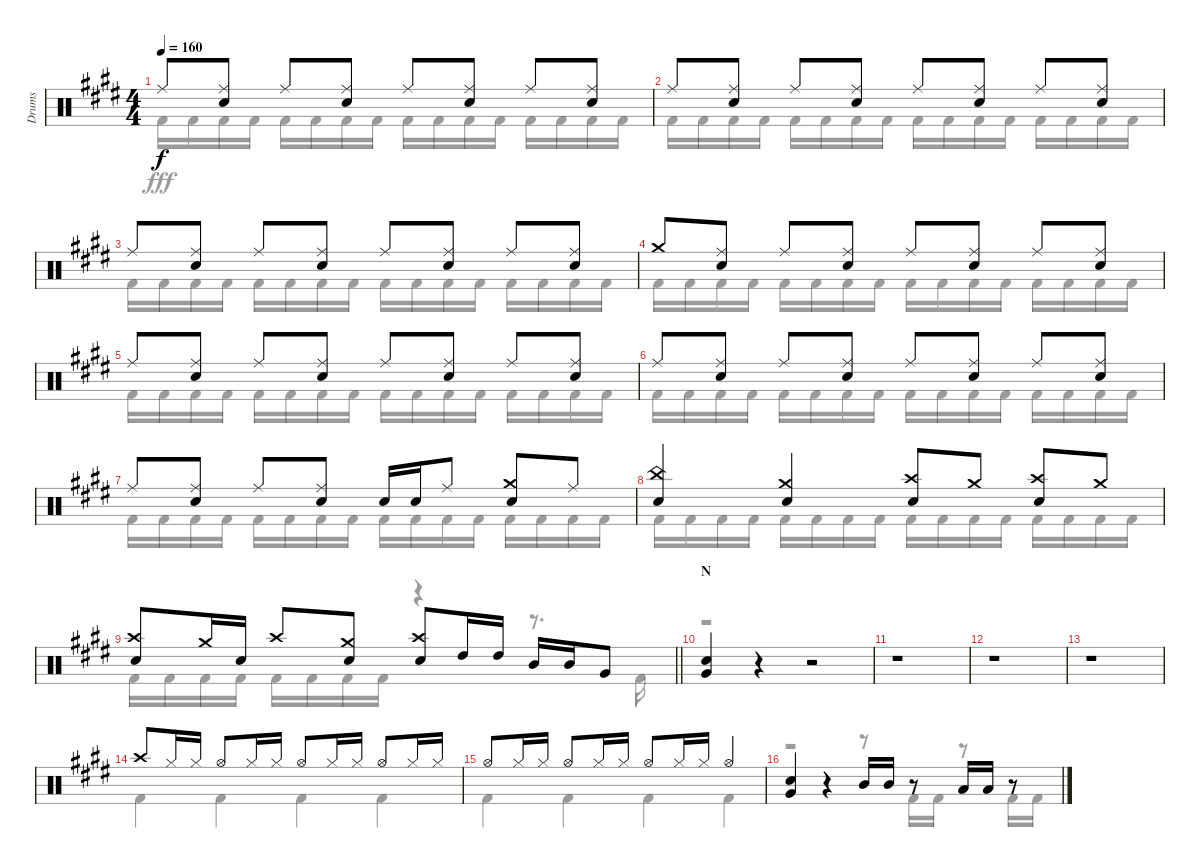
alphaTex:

\track ("Drums" "Drums") {instrument percussion}
\staff {score}
\articulation defaults
\voice
\ts (4 4)
\tempo 160
\clef neutral
\ks e "Ride (middle)".8{dy f}
("Ride (middle)" "Snare (hit) 2").8 "Ride (middle)".8 ("Ride (middle)" "Snare (hit) 2").8 "Ride (middle)".8 ("Ride (middle)" "Snare (hit) 2").8 "Ride (middle)".8 ("Ride (middle)" "Snare (hit) 2").8 |
"Ride (middle)".8 ("Ride (middle)" "Snare (hit) 2").8 "Ride (middle)".8 ("Ride (middle)" "Snare (hit) 2").8 "Ride (middle)".8 ("Ride (middle)" "Snare (hit) 2").8 "Ride (middle)".8 ("Ride (middle)" "Snare (hit) 2").8 |
"Ride (middle)".8 ("Ride (middle)" "Snare (hit) 2").8 "Ride (middle)".8 ("Ride (middle)" "Snare (hit) 2").8 "Ride (middle)".8 ("Ride (middle)" "Snare (hit) 2").8 "Ride (middle)".8 ("Ride (middle)" "Snare (hit) 2").8 |
"Crash medium (hit)".8 ("Ride (middle)" "Snare (hit) 2").8 "Ride (middle)".8 ("Ride (middle)" "Snare (hit) 2").8 "Ride (middle)".8 ("Ride (middle)" "Snare (hit) 2").8 "Ride (middle)".8 ("Ride (middle)" "Snare (hit) 2").8 |
"Ride (middle)".8 ("Ride (middle)" "Snare (hit) 2").8 "Ride (middle)".8 ("Ride (middle)" "Snare (hit) 2").8 "Ride (middle)".8 ("Ride (middle)" "Snare (hit) 2").8 "Ride (middle)".8 ("Ride (middle)" "Snare (hit) 2").8 |
"Ride (middle)".8 ("Ride (middle)" "Snare (hit) 2").8 "Ride (middle)".8 ("Ride (middle)" "Snare (hit) 2").8 "Ride (middle)".8 ("Ride (middle)" "Snare (hit) 2").8 "Ride (middle)".8 ("Ride (middle)" "Snare (hit) 2").8 |
"Ride (middle)".8 ("Ride (middle)" "Snare (hit) 2").8 "Ride (middle)".8 ("Ride (middle)" "Snare (hit) 2").8 "Snare (hit) 2".16 "Snare (hit) 2".16 "Ride (middle)".8 ("Crash medium (hit)" "Snare (hit) 2").8 "Ride (middle)".8 |
("China (hit)" "Snare (hit) 2").4 ("Crash medium (hit)" "Snare (hit) 2").4 ("Crash high (hit)" "Snare (hit) 2").8 "Crash medium (hit)".8 ("Crash high (hit)" "Snare (hit) 2").8 "Crash medium (hit)".8 |
\barLineRight lightlight
("Crash high (hit)" "Snare (hit) 2").8 "Crash medium (hit)".16 "Snare (hit) 2".16 "Crash high (hit)".8 ("Crash medium (hit)" "Snare (hit) 2").8 ("Crash high (hit)" "Snare (hit) 2").8 "High Tom (hit)".16 "High Tom (hit)".16 "Mid Tom (hit)".16 "Mid Tom (hit)".16 "Very Low Tom (hit)".8 |
\section ("" "N")
("Snare (hit) 2" "Very Low Tom (hit)").4 r.4 r.2 |
r.1 |
r.1 |
r.1 |
"Crash high (hit)".8 "Hi-Hat (closed)".16 "Hi-Hat (closed)".16 "Hi-Hat (open)".8 "Hi-Hat (closed)".16 "Hi-Hat (closed)".16 "Hi-Hat (open)".8 "Hi-Hat (closed)".16 "Hi-Hat (closed)".16 "Hi-Hat (open)".8 "Hi-Hat (closed)".16 "Hi-Hat (closed)".16 |
"Hi-Hat (open)".8 "Hi-Hat (closed)".16 "Hi-Hat (closed)".16 "Hi-Hat (open)".8 "Hi-Hat (closed)".16 "Hi-Hat (closed)".16 "Hi-Hat (open)".8 "Hi-Hat (closed)".16 "Hi-Hat (closed)".16 "Hi-Hat (open)".4 |
("Snare (hit) 2" "Very Low Tom (hit)").4 r.4 "Mid Tom (hit)".16 "Mid Tom (hit)".16 r.8 "Low Tom (hit)".16 "Low Tom (hit)".16 r.8
\voice
\clef neutral
\ottava regular
\simile none
\ks e "Kick (hit) 2".16{dy fff} "Kick (hit) 2".16 "Kick (hit) 2".16 "Kick (hit) 2".16 "Kick (hit) 2".16 "Kick (hit) 2".16 "Kick (hit) 2".16 "Kick (hit) 2".16 "Kick (hit) 2".16 "Kick (hit) 2".16 "Kick (hit) 2".16 "Kick (hit) 2".16 "Kick (hit) 2".16 "Kick (hit) 2".16 "Kick (hit) 2".16 "Kick (hit) 2".16
|
"Kick (hit) 2".16 "Kick (hit) 2".16 "Kick (hit) 2".16 "Kick (hit) 2".16 "Kick (hit) 2".16 "Kick (hit) 2".16 "Kick (hit) 2".16 "Kick (hit) 2".16 "Kick (hit) 2".16 "Kick (hit) 2".16 "Kick (hit) 2".16 "Kick (hit) 2".16 "Kick (hit) 2".16 "Kick (hit) 2".16 "Kick (hit) 2".16 "Kick (hit) 2".16 |
"Kick (hit) 2".16 "Kick (hit) 2".16 "Kick (hit) 2".16 "Kick (hit) 2".16 "Kick (hit) 2".16 "Kick (hit) 2".16 "Kick (hit) 2".16 "Kick (hit) 2".16 "Kick (hit) 2".16 "Kick (hit) 2".16 "Kick (hit) 2".16 "Kick (hit) 2".16 "Kick (hit) 2".16 "Kick (hit) 2".16 "Kick (hit) 2".16 "Kick (hit) 2".16 |
"Kick (hit) 2".16 "Kick (hit) 2".16 "Kick (hit) 2".16 "Kick (hit) 2".16 "Kick (hit) 2".16 "Kick (hit) 2".16 "Kick (hit) 2".16 "Kick (hit) 2".16 "Kick (hit) 2".16 "Kick (hit) 2".16 "Kick (hit) 2".16 "Kick (hit) 2".16 "Kick (hit) 2".16 "Kick (hit) 2".16 "Kick (hit) 2".16 "Kick (hit) 2".16 |
"Kick (hit) 2".16 "Kick (hit) 2".16 "Kick (hit) 2".16 "Kick (hit) 2".16 "Kick (hit) 2".16 "Kick (hit) 2".16 "Kick (hit) 2".16 "Kick (hit) 2".16 "Kick (hit) 2".16 "Kick (hit) 2".16 "Kick (hit) 2".16 "Kick (hit) 2".16 "Kick (hit) 2".16 "Kick (hit) 2".16 "Kick (hit) 2".16 "Kick (hit) 2".16 |
"Kick (hit) 2".16 "Kick (hit) 2".16 "Kick (hit) 2".16 "Kick (hit) 2".16 "Kick (hit) 2".16 "Kick (hit) 2".16 "Kick (hit) 2".16 "Kick (hit) 2".16 "Kick (hit) 2".16 "Kick (hit) 2".16 "Kick (hit) 2".16 "Kick (hit) 2".16 "Kick (hit) 2".16 "Kick (hit) 2".16 "Kick (hit) 2".16 "Kick (hit) 2".16 |
"Kick (hit) 2".16 "Kick (hit) 2".16 "Kick (hit) 2".16 "Kick (hit) 2".16 "Kick (hit) 2".16 "Kick (hit) 2".16 "Kick (hit) 2".16 "Kick (hit) 2".16 "Kick (hit) 2".16 "Kick (hit) 2".16 "Kick (hit) 2".16 "Kick (hit) 2".16 "Kick (hit) 2".16 "Kick (hit) 2".16 "Kick (hit) 2".16 "Kick (hit) 2".16 |
"Kick (hit) 2".16 "Kick (hit) 2".16 "Kick (hit) 2".16 "Kick (hit) 2".16 "Kick (hit) 2".16 "Kick (hit) 2".16 "Kick (hit) 2".16 "Kick (hit) 2".16 "Kick (hit) 2".16 "Kick (hit) 2".16 "Kick (hit) 2".16 "Kick (hit) 2".16 "Kick (hit) 2".16 "Kick (hit) 2".16 "Kick (hit) 2".16 "Kick (hit) 2".16 |
\barLineRight lightlight "Kick (hit) 2".16 "Kick (hit) 2".16 "Kick (hit) 2".16 "Kick (hit) 2".16 "Kick (hit) 2".16 "Kick (hit) 2".16 "Kick (hit) 2".16 "Kick (hit) 2".16
r.4 r.8{d} "Kick (hit) 2".16 |
r.1 |
r.1 |
r.1 |
r.1 |
"Kick (hit) 2".4 "Kick (hit) 2".4 "Kick (hit) 2".4 "Kick (hit) 2".4 |
"Kick (hit) 2".4 "Kick (hit) 2".4 "Kick (hit) 2".4 "Kick (hit) 2".4 |
r.2 r.8 "Kick (hit) 2".16 "Kick (hit) 2".16 r.8 "Kick (hit) 2".16 "Kick (hit) 2".16
